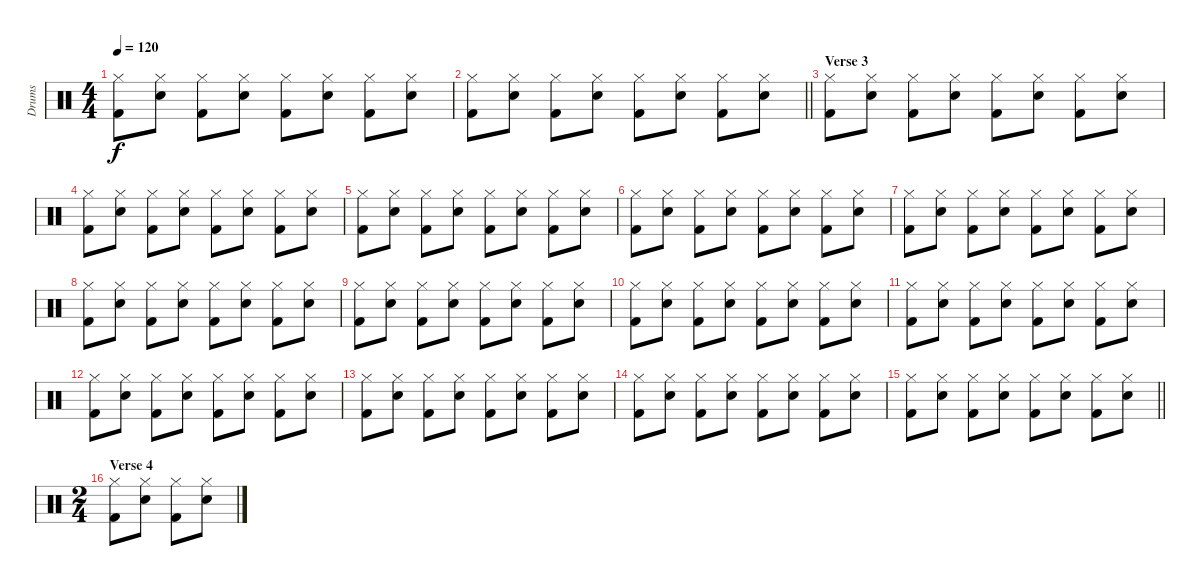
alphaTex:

\track ("Drums" "Drums") {instrument percussion}
\staff {score}
\articulation defaults
\ts (4 4)
\tempo 120
\clef neutral
\ks c
("Hi-Hat (closed)" "Kick (hit) 2").8{dy f} ("Hi-Hat (closed)" "Snare (hit) 2").8 ("Hi-Hat (closed)" "Kick (hit) 2").8 ("Hi-Hat (closed)" "Snare (hit) 2").8 ("Hi-Hat (closed)" "Kick (hit) 2").8 ("Hi-Hat (closed)" "Snare (hit) 2").8 ("Hi-Hat (closed)" "Kick (hit) 2").8 ("Hi-Hat (closed)" "Snare (hit) 2").8 |
\barLineRight lightlight
("Hi-Hat (closed)" "Kick (hit) 2").8 ("Hi-Hat (closed)" "Snare (hit) 2").8 ("Hi-Hat (closed)" "Kick (hit) 2").8 ("Hi-Hat (closed)" "Snare (hit) 2").8 ("Hi-Hat (closed)" "Kick (hit) 2").8 ("Hi-Hat (closed)" "Snare (hit) 2").8 ("Hi-Hat (closed)" "Kick (hit) 2").8 ("Hi-Hat (closed)" "Snare (hit) 2").8 |
\section ("" "Verse 3")
("Hi-Hat (closed)" "Kick (hit) 2").8 ("Hi-Hat (closed)" "Snare (hit) 2").8 ("Hi-Hat (closed)" "Kick (hit) 2").8 ("Hi-Hat (closed)" "Snare (hit) 2").8 ("Hi-Hat (closed)" "Kick (hit) 2").8 ("Hi-Hat (closed)" "Snare (hit) 2").8 ("Hi-Hat (closed)" "Kick (hit) 2").8 ("Hi-Hat (closed)" "Snare (hit) 2").8 |
("Hi-Hat (closed)" "Kick (hit) 2").8 ("Hi-Hat (closed)" "Snare (hit) 2").8 ("Hi-Hat (closed)" "Kick (hit) 2").8 ("Hi-Hat (closed)" "Snare (hit) 2").8 ("Hi-Hat (closed)" "Kick (hit) 2").8 ("Hi-Hat (closed)" "Snare (hit) 2").8 ("Hi-Hat (closed)" "Kick (hit) 2").8 ("Hi-Hat (closed)" "Snare (hit) 2").8 |
("Hi-Hat (closed)" "Kick (hit) 2").8 ("Hi-Hat (closed)" "Snare (hit) 2").8 ("Hi-Hat (closed)" "Kick (hit) 2").8 ("Hi-Hat (closed)" "Snare (hit) 2").8 ("Hi-Hat (closed)" "Kick (hit) 2").8 ("Hi-Hat (closed)" "Snare (hit) 2").8 ("Hi-Hat (closed)" "Kick (hit) 2").8 ("Hi-Hat (closed)" "Snare (hit) 2").8 |
("Hi-Hat (closed)" "Kick (hit) 2").8 ("Hi-Hat (closed)" "Snare (hit) 2").8 ("Hi-Hat (closed)" "Kick (hit) 2").8 ("Hi-Hat (closed)" "Snare (hit) 2").8 ("Hi-Hat (closed)" "Kick (hit) 2").8 ("Hi-Hat (closed)" "Snare (hit) 2").8 ("Hi-Hat (closed)" "Kick (hit) 2").8 ("Hi-Hat (closed)" "Snare (hit) 2").8 |
("Hi-Hat (closed)" "Kick (hit) 2").8 ("Hi-Hat (closed)" "Snare (hit) 2").8 ("Hi-Hat (closed)" "Kick (hit) 2").8 ("Hi-Hat (closed)" "Snare (hit) 2").8 ("Hi-Hat (closed)" "Kick (hit) 2").8 ("Hi-Hat (closed)" "Snare (hit) 2").8 ("Hi-Hat (closed)" "Kick (hit) 2").8 ("Hi-Hat (closed)" "Snare (hit) 2").8 |
("Hi-Hat (closed)" "Kick (hit) 2").8 ("Hi-Hat (closed)" "Snare (hit) 2").8 ("Hi-Hat (closed)" "Kick (hit) 2").8 ("Hi-Hat (closed)" "Snare (hit) 2").8 ("Hi-Hat (closed)" "Kick (hit) 2").8 ("Hi-Hat (closed)" "Snare (hit) 2").8 ("Hi-Hat (closed)" "Kick (hit) 2").8 ("Hi-Hat (closed)" "Snare (hit) 2").8 |
("Hi-Hat (closed)" "Kick (hit) 2").8 ("Hi-Hat (closed)" "Snare (hit) 2").8 ("Hi-Hat (closed)" "Kick (hit) 2").8 ("Hi-Hat (closed)" "Snare (hit) 2").8 ("Hi-Hat (closed)" "Kick (hit) 2").8 ("Hi-Hat (closed)" "Snare (hit) 2").8 ("Hi-Hat (closed)" "Kick (hit) 2").8 ("Hi-Hat (closed)" "Snare (hit) 2").8 |
("Hi-Hat (closed)" "Kick (hit) 2").8 ("Hi-Hat (closed)" "Snare (hit) 2").8 ("Hi-Hat (closed)" "Kick (hit) 2").8 ("Hi-Hat (closed)" "Snare (hit) 2").8 ("Hi-Hat (closed)" "Kick (hit) 2").8 ("Hi-Hat (closed)" "Snare (hit) 2").8 ("Hi-Hat (closed)" "Kick (hit) 2").8 ("Hi-Hat (closed)" "Snare (hit) 2").8 |
("Hi-Hat (closed)" "Kick (hit) 2").8 ("Hi-Hat (closed)" "Snare (hit) 2").8 ("Hi-Hat (closed)" "Kick (hit) 2").8 ("Hi-Hat (closed)" "Snare (hit) 2").8 ("Hi-Hat (closed)" "Kick (hit) 2").8 ("Hi-Hat (closed)" "Snare (hit) 2").8 ("Hi-Hat (closed)" "Kick (hit) 2").8 ("Hi-Hat (closed)" "Snare (hit) 2").8 |
("Hi-Hat (closed)" "Kick (hit) 2").8 ("Hi-Hat (closed)" "Snare (hit) 2").8 ("Hi-Hat (closed)" "Kick (hit) 2").8 ("Hi-Hat (closed)" "Snare (hit) 2").8 ("Hi-Hat (closed)" "Kick (hit) 2").8 ("Hi-Hat (closed)" "Snare (hit) 2").8 ("Hi-Hat (closed)" "Kick (hit) 2").8 ("Hi-Hat (closed)" "Snare (hit) 2").8 |
("Hi-Hat (closed)" "Kick (hit) 2").8 ("Hi-Hat (closed)" "Snare (hit) 2").8 ("Hi-Hat (closed)" "Kick (hit) 2").8 ("Hi-Hat (closed)" "Snare (hit) 2").8 ("Hi-Hat (closed)" "Kick (hit) 2").8 ("Hi-Hat (closed)" "Snare (hit) 2").8 ("Hi-Hat (closed)" "Kick (hit) 2").8 ("Hi-Hat (closed)" "Snare (hit) 2").8 |
("Hi-Hat (closed)" "Kick (hit) 2").8 ("Hi-Hat (closed)" "Snare (hit) 2").8 ("Hi-Hat (closed)" "Kick (hit) 2").8 ("Hi-Hat (closed)" "Snare (hit) 2").8 ("Hi-Hat (closed)" "Kick (hit) 2").8 ("Hi-Hat (closed)" "Snare (hit) 2").8 ("Hi-Hat (closed)" "Kick (hit) 2").8 ("Hi-Hat (closed)" "Snare (hit) 2").8 |
\barLineRight lightlight
("Hi-Hat (closed)" "Kick (hit) 2").8 ("Hi-Hat (closed)" "Snare (hit) 2").8 ("Hi-Hat (closed)" "Kick (hit) 2").8 ("Hi-Hat (closed)" "Snare (hit) 2").8 ("Hi-Hat (closed)" "Kick (hit) 2").8 ("Hi-Hat (closed)" "Snare (hit) 2").8 ("Hi-Hat (closed)" "Kick (hit) 2").8 ("Hi-Hat (closed)" "Snare (hit) 2").8 |
\ts (2 4)
\section ("" "Verse 4")
("Hi-Hat (closed)" "Kick (hit) 2").8 ("Hi-Hat (closed)" "Snare (hit) 2").8 ("Hi-Hat (closed)" "Kick (hit) 2").8 ("Hi-Hat (closed)" "Snare (hit) 2").8
